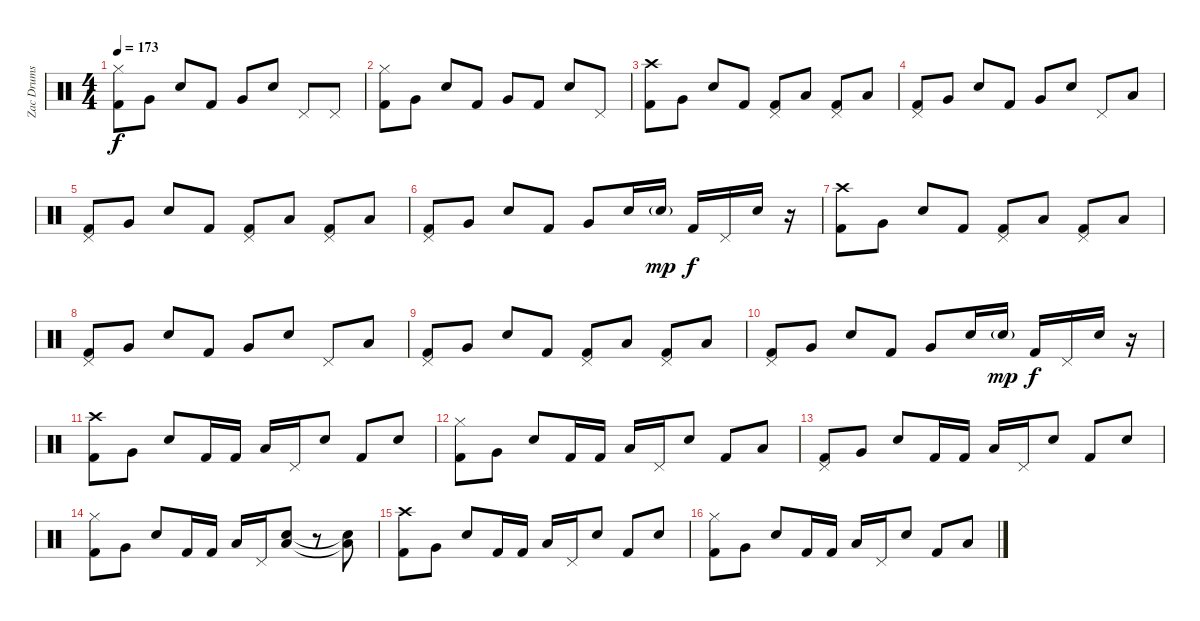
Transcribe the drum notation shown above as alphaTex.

\track ("Zac Drums" "Zac Drums") {instrument percussion}
\staff {score}
\articulation defaults
\ts (4 4)
\tempo 173
\clef neutral
\ks c
("Hi-Hat (closed)" "Kick (hit) 2").8{dy f} "Very Low Tom (hit)".8 "Electric Snare (hit)".8 "Kick (hit) 2".8 "Very Low Tom (hit)".8 "Electric Snare (hit)".8 "Pedal Hi-Hat (hit)".8 "Pedal Hi-Hat (hit)".8 |
("Hi-Hat (closed)" "Kick (hit) 2").8 "Very Low Tom (hit)".8 "Electric Snare (hit)".8 "Kick (hit) 2".8 "Very Low Tom (hit)".8 "Kick (hit) 2".8 "Electric Snare (hit)".8 "Pedal Hi-Hat (hit)".8 |
("Crash high (hit)" "Kick (hit) 2").8 "Very Low Tom (hit)".8 "Electric Snare (hit)".8 "Kick (hit) 2".8 ("Pedal Hi-Hat (hit)" "Kick (hit) 2").8 "Low Tom (hit)".8 ("Pedal Hi-Hat (hit)" "Kick (hit) 2").8 "Low Tom (hit)".8 |
("Pedal Hi-Hat (hit)" "Kick (hit) 2").8 "Very Low Tom (hit)".8 "Electric Snare (hit)".8 "Kick (hit) 2".8 "Very Low Tom (hit)".8 "Electric Snare (hit)".8 "Pedal Hi-Hat (hit)".8 "Low Tom (hit)".8 |
("Pedal Hi-Hat (hit)" "Kick (hit) 2").8 "Very Low Tom (hit)".8 "Electric Snare (hit)".8 "Kick (hit) 2".8 ("Pedal Hi-Hat (hit)" "Kick (hit) 2").8 "Low Tom (hit)".8 ("Pedal Hi-Hat (hit)" "Kick (hit) 2").8 "Low Tom (hit)".8 |
("Pedal Hi-Hat (hit)" "Kick (hit) 2").8 "Very Low Tom (hit)".8 "Electric Snare (hit)".8 "Kick (hit) 2".8 "Very Low Tom (hit)".8 "Electric Snare (hit)".16 "Electric Snare (hit)"{g}.16{dy mp} "Kick (hit) 2".16{dy f} "Pedal Hi-Hat (hit)".16 "Electric Snare (hit)".16 r.16 |
("Crash high (hit)" "Kick (hit) 2").8 "Very Low Tom (hit)".8 "Electric Snare (hit)".8 "Kick (hit) 2".8 ("Pedal Hi-Hat (hit)" "Kick (hit) 2").8 "Low Tom (hit)".8 ("Pedal Hi-Hat (hit)" "Kick (hit) 2").8 "Low Tom (hit)".8 |
("Pedal Hi-Hat (hit)" "Kick (hit) 2").8 "Very Low Tom (hit)".8 "Electric Snare (hit)".8 "Kick (hit) 2".8 "Very Low Tom (hit)".8 "Electric Snare (hit)".8 "Pedal Hi-Hat (hit)".8 "Low Tom (hit)".8 |
("Pedal Hi-Hat (hit)" "Kick (hit) 2").8 "Very Low Tom (hit)".8 "Electric Snare (hit)".8 "Kick (hit) 2".8 ("Pedal Hi-Hat (hit)" "Kick (hit) 2").8 "Low Tom (hit)".8 ("Pedal Hi-Hat (hit)" "Kick (hit) 2").8 "Low Tom (hit)".8 |
("Pedal Hi-Hat (hit)" "Kick (hit) 2").8 "Very Low Tom (hit)".8 "Electric Snare (hit)".8 "Kick (hit) 2".8 "Very Low Tom (hit)".8 "Electric Snare (hit)".16 "Electric Snare (hit)"{g}.16{dy mp} "Kick (hit) 2".16{dy f} "Pedal Hi-Hat (hit)".16 "Electric Snare (hit)".16 r.16 |
("Crash high (hit)" "Kick (hit) 2").8 "Very Low Tom (hit)".8 "Electric Snare (hit)".8 "Kick (hit) 2".16 "Kick (hit) 2".16 "Low Tom (hit)".16 "Pedal Hi-Hat (hit)".16 "Electric Snare (hit)".8 "Kick (hit) 2".8 "Electric Snare (hit)".8 |
("Hi-Hat (closed)" "Kick (hit) 2").8 "Very Low Tom (hit)".8 "Electric Snare (hit)".8 "Kick (hit) 2".16 "Kick (hit) 2".16 "Low Tom (hit)".16 "Pedal Hi-Hat (hit)".16 "Electric Snare (hit)".8 "Kick (hit) 2".8 "Low Tom (hit)".8 |
("Pedal Hi-Hat (hit)" "Kick (hit) 2").8 "Very Low Tom (hit)".8 "Electric Snare (hit)".8 "Kick (hit) 2".16 "Kick (hit) 2".16 "Low Tom (hit)".16 "Pedal Hi-Hat (hit)".16 "Electric Snare (hit)".8 "Kick (hit) 2".8 "Electric Snare (hit)".8 |
("Hi-Hat (closed)" "Kick (hit) 2").8 "Very Low Tom (hit)".8 "Electric Snare (hit)".8 "Kick (hit) 2".16 "Kick (hit) 2".16 "Low Tom (hit)".16 "Pedal Hi-Hat (hit)".16 ("Low Tom (hit)" "Electric Snare (hit)").8 r.8 ("Low Tom (hit)"{t} "Snare (hit)"{t}).8 |
("Crash high (hit)" "Kick (hit) 2").8 "Very Low Tom (hit)".8 "Electric Snare (hit)".8 "Kick (hit) 2".16 "Kick (hit) 2".16 "Low Tom (hit)".16 "Pedal Hi-Hat (hit)".16 "Electric Snare (hit)".8 "Kick (hit) 2".8 "Electric Snare (hit)".8 |
("Hi-Hat (closed)" "Kick (hit) 2").8 "Very Low Tom (hit)".8 "Electric Snare (hit)".8 "Kick (hit) 2".16 "Kick (hit) 2".16 "Low Tom (hit)".16 "Pedal Hi-Hat (hit)".16 "Electric Snare (hit)".8 "Kick (hit) 2".8 "Low Tom (hit)".8
